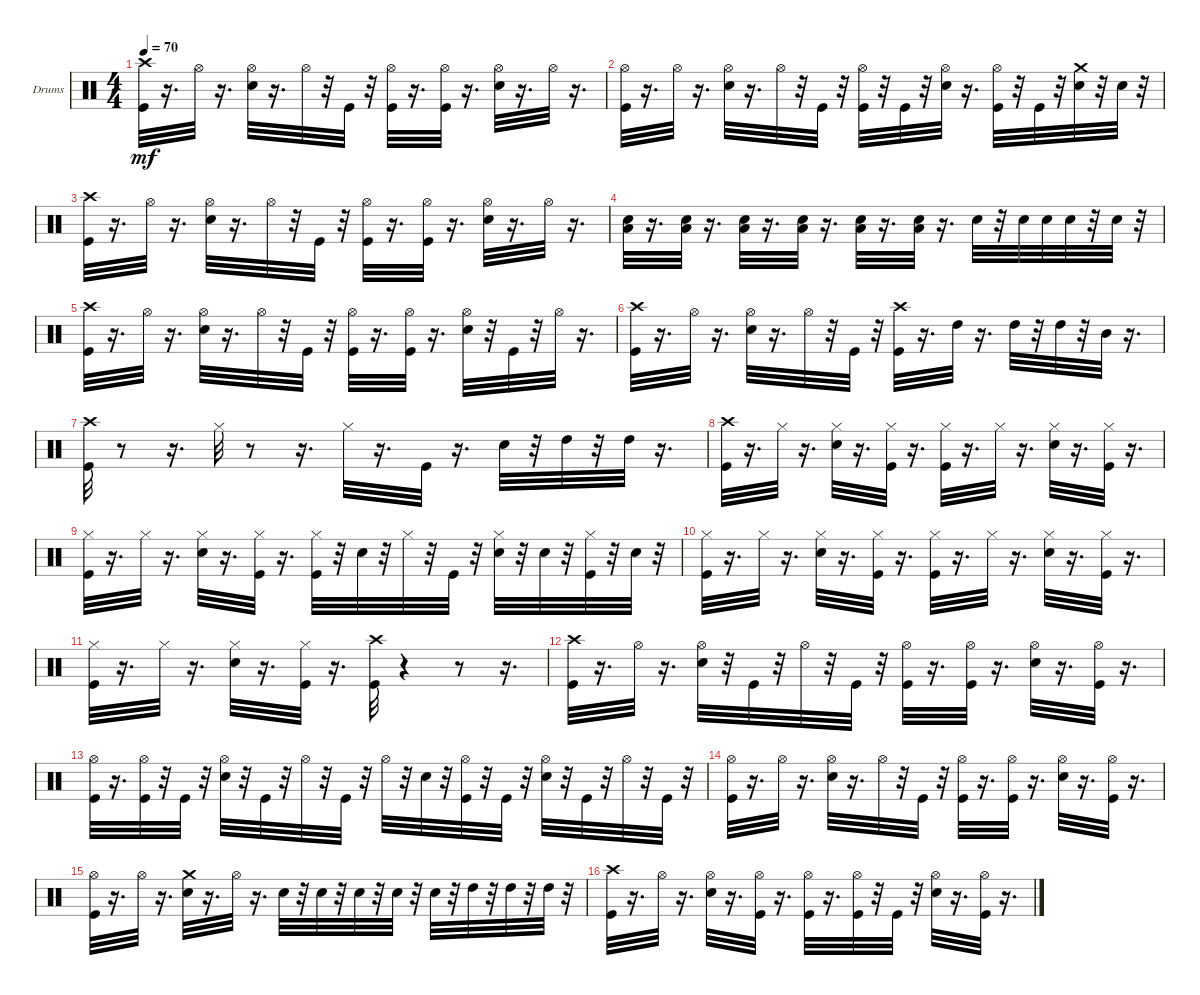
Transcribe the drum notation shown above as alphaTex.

\bracketExtendMode groupsimilarinstruments
\firstSystemTrackNameOrientation horizontal
\otherSystemsTrackNameOrientation horizontal
\track ("" "Drums") {instrument percussion}
\staff {score}
\articulation defaults
\ts (4 4)
\tempo 70
\clef neutral
\ks c
("Crash high (hit)" "Kick (hit)").32{dy mf} r.16{d} "Hi-Hat (open)".32 r.16{d} ("Snare (hit) 2" "Hi-Hat (open)").32 r.16{d} "Hi-Hat (open)".32 r.32 "Kick (hit)".32 r.32 ("Kick (hit)" "Hi-Hat (open)").32 r.16{d} ("Kick (hit)" "Hi-Hat (open)").32 r.16{d} ("Snare (hit) 2" "Hi-Hat (open)").32 r.16{d} "Hi-Hat (open)".32 r.16{d} |
("Hi-Hat (open)" "Kick (hit)").32 r.16{d} "Hi-Hat (open)".32 r.16{d} ("Snare (hit) 2" "Hi-Hat (open)").32 r.16{d} "Hi-Hat (open)".32 r.32 "Kick (hit)".32 r.32 ("Kick (hit)" "Hi-Hat (open)").32 r.32 "Kick (hit)".32 r.32 ("Snare (hit) 2" "Hi-Hat (open)").32 r.16{d} ("Hi-Hat (open)" "Kick (hit)").32 r.32 "Kick (hit)".32 r.32 ("Crash medium (hit)" "Snare (hit) 2").32 r.32 "Snare (hit) 2".32 r.32 |
("Crash high (hit)" "Kick (hit)").32 r.16{d} "Hi-Hat (open)".32 r.16{d} ("Snare (hit) 2" "Hi-Hat (open)").32 r.16{d} "Hi-Hat (open)".32 r.32 "Kick (hit)".32 r.32 ("Kick (hit)" "Hi-Hat (open)").32 r.16{d} ("Kick (hit)" "Hi-Hat (open)").32 r.16{d} ("Snare (hit) 2" "Hi-Hat (open)").32 r.16{d} "Hi-Hat (open)".32 r.16{d} |
("Low Tom (hit)" "Snare (hit) 2").32 r.16{d} ("Snare (hit) 2" "Low Tom (hit)").32 r.16{d} ("Low Tom (hit)" "Snare (hit) 2").32 r.16{d} ("Snare (hit) 2" "Low Tom (hit)").32 r.16{d} ("Low Tom (hit)" "Snare (hit) 2").32 r.16{d} ("Low Tom (hit)" "Snare (hit) 2").32 r.16{d} "Snare (hit) 2".32 r.32 "Snare (hit) 2".32 "Snare (hit) 2".32 "Snare (hit) 2".32 r.32 "Snare (hit) 2".32 r.32 |
("Crash high (hit)" "Kick (hit)").32 r.16{d} "Hi-Hat (open)".32 r.16{d} ("Snare (hit) 2" "Hi-Hat (open)").32 r.16{d} "Hi-Hat (open)".32 r.32 "Kick (hit)".32 r.32 ("Kick (hit)" "Hi-Hat (open)").32 r.16{d} ("Kick (hit)" "Hi-Hat (open)").32 r.16{d} ("Snare (hit) 2" "Hi-Hat (open)").32 r.32 "Kick (hit)".32 r.32 "Hi-Hat (open)".32 r.16{d} |
("Crash high (hit)" "Kick (hit)").32 r.16{d} "Hi-Hat (open)".32 r.16{d} ("Snare (hit) 2" "Hi-Hat (open)").32 r.16{d} "Hi-Hat (open)".32 r.32 "Kick (hit)".32 r.32 ("Crash high (hit)" "Kick (hit)").32 r.16{d} "High Tom (hit)".32 r.16{d} "High Tom (hit)".32 r.32 "High Tom (hit)".32 r.32 "Mid Tom (hit)".32 r.16{d} |
("Crash high (hit)" "Kick (hit)").32 r.8 r.16{d} "Hi-Hat (closed)".32 r.8 r.16{d} "Hi-Hat (closed)".32 r.16{d} "Kick (hit)".32 r.16{d} "Snare (hit) 2".32 r.32 "High Tom (hit)".32 r.32 "High Tom (hit)".32 r.16{d} |
("Crash high (hit)" "Kick (hit)").32 r.16{d} "Hi-Hat (closed)".32 r.16{d} ("Snare (hit) 2" "Hi-Hat (closed)").32 r.16{d} ("Kick (hit)" "Hi-Hat (closed)").32 r.16{d} ("Kick (hit)" "Hi-Hat (closed)").32 r.16{d} "Hi-Hat (closed)".32 r.16{d} ("Snare (hit) 2" "Hi-Hat (closed)").32 r.16{d} ("Kick (hit)" "Hi-Hat (closed)").32 r.16{d} |
("Hi-Hat (closed)" "Kick (hit)").32 r.16{d} "Hi-Hat (closed)".32 r.16{d} ("Snare (hit) 2" "Hi-Hat (closed)").32 r.16{d} ("Kick (hit)" "Hi-Hat (closed)").32 r.16{d} ("Kick (hit)" "Hi-Hat (closed)").32 r.32 "Snare (hit) 2".32 r.32 "Hi-Hat (closed)".32 r.32 "Kick (hit)".32 r.32 ("Snare (hit) 2" "Hi-Hat (closed)").32 r.32 "Snare (hit) 2".32 r.32 ("Kick (hit)" "Hi-Hat (closed)").32 r.32 "Snare (hit) 2".32 r.32 |
("Hi-Hat (closed)" "Kick (hit)").32 r.16{d} "Hi-Hat (closed)".32 r.16{d} ("Snare (hit) 2" "Hi-Hat (closed)").32 r.16{d} ("Kick (hit)" "Hi-Hat (closed)").32 r.16{d} ("Kick (hit)" "Hi-Hat (closed)").32 r.16{d} "Hi-Hat (closed)".32 r.16{d} ("Snare (hit) 2" "Hi-Hat (closed)").32 r.16{d} ("Kick (hit)" "Hi-Hat (closed)").32 r.16{d} |
("Hi-Hat (closed)" "Kick (hit)").32 r.16{d} "Hi-Hat (closed)".32 r.16{d} ("Snare (hit) 2" "Hi-Hat (closed)").32 r.16{d} ("Kick (hit)" "Hi-Hat (closed)").32 r.16{d} ("Crash high (hit)" "Kick (hit)").32 r.4 r.8 r.16{d} |
("Crash high (hit)" "Kick (hit)").32 r.16{d} "Hi-Hat (open)".32 r.16{d} ("Snare (hit) 2" "Hi-Hat (open)").32 r.32 "Kick (hit)".32 r.32 "Hi-Hat (open)".32 r.32 "Kick (hit)".32 r.32 ("Kick (hit)" "Hi-Hat (open)").32 r.16{d} ("Kick (hit)" "Hi-Hat (open)").32 r.16{d} ("Snare (hit) 2" "Hi-Hat (open)").32 r.16{d} ("Kick (hit)" "Hi-Hat (open)").32 r.16{d} |
("Hi-Hat (open)" "Kick (hit)").32 r.16{d} ("Kick (hit)" "Hi-Hat (open)").32 r.32 "Kick (hit)".32 r.32 ("Snare (hit) 2" "Hi-Hat (open)").32 r.32 "Kick (hit)".32 r.32 "Hi-Hat (open)".32 r.32 "Kick (hit)".32 r.32 "Hi-Hat (open)".32 r.32 "Snare (hit) 2".32 r.32 ("Kick (hit)" "Hi-Hat (open)").32 r.32 "Kick (hit)".32 r.32 ("Snare (hit) 2" "Hi-Hat (open)").32 r.32 "Kick (hit)".32 r.32 "Hi-Hat (open)".32 r.32 "Kick (hit)".32 r.32 |
("Hi-Hat (open)" "Kick (hit)").32 r.16{d} "Hi-Hat (open)".32 r.16{d} ("Snare (hit) 2" "Hi-Hat (open)").32 r.16{d} "Hi-Hat (open)".32 r.32 "Kick (hit)".32 r.32 ("Kick (hit)" "Hi-Hat (open)").32 r.16{d} ("Kick (hit)" "Hi-Hat (open)").32 r.16{d} ("Snare (hit) 2" "Hi-Hat (open)").32 r.16{d} ("Kick (hit)" "Hi-Hat (open)").32 r.16{d} |
("Hi-Hat (open)" "Kick (hit)").32 r.16{d} "Hi-Hat (open)".32 r.16{d} ("Crash medium (hit)" "Snare (hit) 2").32 r.16{d} "Hi-Hat (open)".32 r.16{d} "Snare (hit) 2".32 r.32 "Snare (hit) 2".32 r.32 "Snare (hit) 2".32 r.32 "Snare (hit) 2".32 r.32 "Snare (hit) 2".32 r.32 "High Tom (hit)".32 r.32 "High Tom (hit)".32 r.32 "High Tom (hit)".32 r.32 |
("Crash high (hit)" "Kick (hit)").32 r.16{d} "Hi-Hat (open)".32 r.16{d} ("Snare (hit) 2" "Hi-Hat (open)").32 r.16{d} ("Kick (hit)" "Hi-Hat (open)").32 r.16{d} ("Kick (hit)" "Hi-Hat (open)").32 r.16{d} ("Kick (hit)" "Hi-Hat (open)").32 r.32 "Kick (hit)".32 r.32 ("Snare (hit) 2" "Hi-Hat (open)").32 r.16{d} ("Kick (hit)" "Hi-Hat (open)").32 r.16{d}
